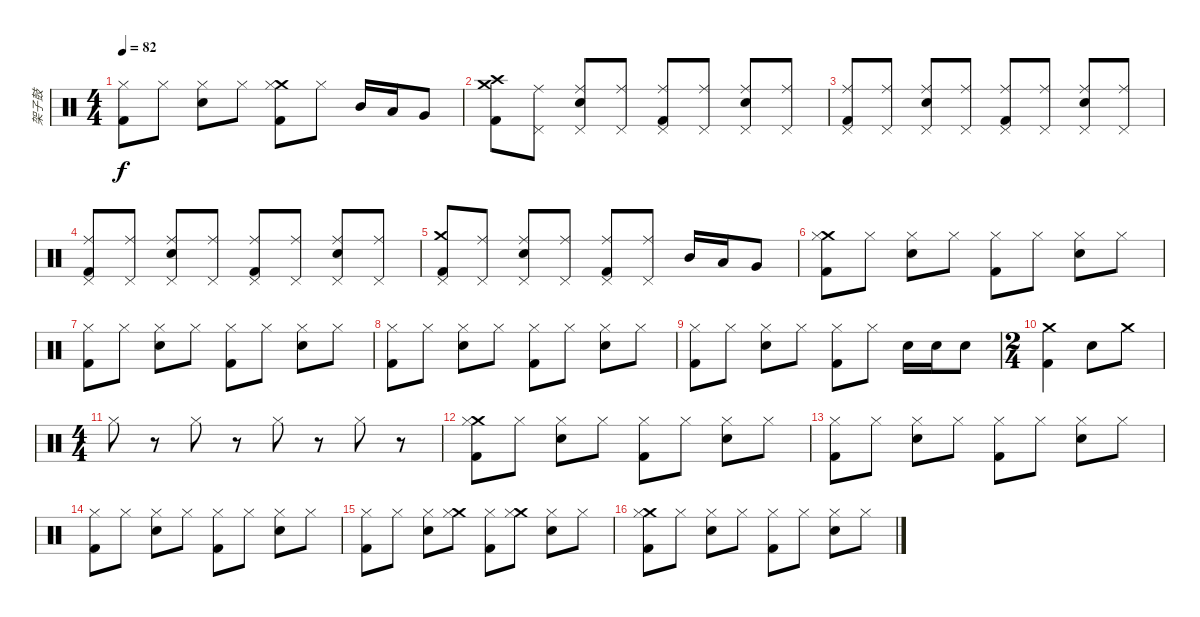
\track ("架子鼓" "架子鼓") {instrument percussion}
\staff {score}
\articulation defaults
\ts (4 4)
\tempo 82
\clef neutral
\ks c
("Hi-Hat (closed)" "Kick (hit) 2").8{dy f} "Hi-Hat (closed)".8 ("Hi-Hat (closed)" "Snare (hit) 2").8 "Hi-Hat (closed)".8 ("Crash medium (hit)" "Hi-Hat (closed)" "Kick (hit) 2").8 "Hi-Hat (closed)".8 "Mid Tom (hit)".16 "Low Tom (hit)".16 "Very Low Tom (hit)".8 |
("Crash medium (hit)" "Crash high (hit)" "Kick (hit) 2").8 ("Ride (middle)" "Pedal Hi-Hat (hit)").8 ("Ride (middle)" "Pedal Hi-Hat (hit)" "Snare (hit) 2").8 ("Ride (middle)" "Pedal Hi-Hat (hit)").8 ("Ride (middle)" "Pedal Hi-Hat (hit)" "Kick (hit) 2").8 ("Ride (middle)" "Pedal Hi-Hat (hit)").8 ("Ride (middle)" "Pedal Hi-Hat (hit)" "Snare (hit) 2").8 ("Ride (middle)" "Pedal Hi-Hat (hit)").8 |
("Ride (middle)" "Pedal Hi-Hat (hit)" "Kick (hit) 2").8 ("Ride (middle)" "Pedal Hi-Hat (hit)").8 ("Ride (middle)" "Pedal Hi-Hat (hit)" "Snare (hit) 2").8 ("Ride (middle)" "Pedal Hi-Hat (hit)").8 ("Ride (middle)" "Pedal Hi-Hat (hit)" "Kick (hit) 2").8 ("Ride (middle)" "Pedal Hi-Hat (hit)").8 ("Ride (middle)" "Pedal Hi-Hat (hit)" "Snare (hit) 2").8 ("Ride (middle)" "Pedal Hi-Hat (hit)").8 |
("Ride (middle)" "Pedal Hi-Hat (hit)" "Kick (hit) 2").8 ("Ride (middle)" "Pedal Hi-Hat (hit)").8 ("Ride (middle)" "Pedal Hi-Hat (hit)" "Snare (hit) 2").8 ("Ride (middle)" "Pedal Hi-Hat (hit)").8 ("Ride (middle)" "Pedal Hi-Hat (hit)" "Kick (hit) 2").8 ("Ride (middle)" "Pedal Hi-Hat (hit)").8 ("Ride (middle)" "Pedal Hi-Hat (hit)" "Snare (hit) 2").8 ("Ride (middle)" "Pedal Hi-Hat (hit)").8 |
("Crash medium (hit)" "Pedal Hi-Hat (hit)" "Kick (hit) 2").8 ("Ride (middle)" "Pedal Hi-Hat (hit)").8 ("Ride (middle)" "Pedal Hi-Hat (hit)" "Snare (hit) 2").8 ("Ride (middle)" "Pedal Hi-Hat (hit)").8 ("Ride (middle)" "Pedal Hi-Hat (hit)" "Kick (hit) 2").8 ("Ride (middle)" "Pedal Hi-Hat (hit)").8 "Mid Tom (hit)".16 "Low Tom (hit)".16 "Very Low Tom (hit)".8 |
("Crash medium (hit)" "Hi-Hat (closed)" "Kick (hit) 2").8 "Hi-Hat (closed)".8 ("Hi-Hat (closed)" "Snare (hit) 2").8 "Hi-Hat (closed)".8 ("Hi-Hat (closed)" "Kick (hit) 2").8 "Hi-Hat (closed)".8 ("Hi-Hat (closed)" "Snare (hit) 2").8 "Hi-Hat (closed)".8 |
("Hi-Hat (closed)" "Kick (hit) 2").8 "Hi-Hat (closed)".8 ("Hi-Hat (closed)" "Snare (hit) 2").8 "Hi-Hat (closed)".8 ("Hi-Hat (closed)" "Kick (hit) 2").8 "Hi-Hat (closed)".8 ("Hi-Hat (closed)" "Snare (hit) 2").8 "Hi-Hat (closed)".8 |
("Hi-Hat (closed)" "Kick (hit) 2").8 "Hi-Hat (closed)".8 ("Hi-Hat (closed)" "Snare (hit) 2").8 "Hi-Hat (closed)".8 ("Hi-Hat (closed)" "Kick (hit) 2").8 "Hi-Hat (closed)".8 ("Hi-Hat (closed)" "Snare (hit) 2").8 "Hi-Hat (closed)".8 |
("Hi-Hat (closed)" "Kick (hit) 2").8 "Hi-Hat (closed)".8 ("Hi-Hat (closed)" "Snare (hit) 2").8 "Hi-Hat (closed)".8 ("Hi-Hat (closed)" "Kick (hit) 2").8 "Hi-Hat (closed)".8 "Snare (hit) 2".16 "Snare (hit) 2".16 "Snare (hit) 2".8 |
\ts (2 4)
("Crash medium (hit)" "Kick (hit) 2").4 "Snare (hit) 2".8 "Crash medium (hit)".8 |
\ts (4 4)
"Hi-Hat (closed)".8 r.8 "Hi-Hat (closed)".8 r.8 "Hi-Hat (closed)".8 r.8 "Hi-Hat (closed)".8 r.8 |
("Crash medium (hit)" "Hi-Hat (closed)" "Kick (hit) 2").8 "Hi-Hat (closed)".8 ("Hi-Hat (closed)" "Snare (hit) 2").8 "Hi-Hat (closed)".8 ("Hi-Hat (closed)" "Kick (hit) 2").8 "Hi-Hat (closed)".8 ("Hi-Hat (closed)" "Snare (hit) 2").8 "Hi-Hat (closed)".8 |
("Hi-Hat (closed)" "Kick (hit) 2").8 "Hi-Hat (closed)".8 ("Hi-Hat (closed)" "Snare (hit) 2").8 "Hi-Hat (closed)".8 ("Hi-Hat (closed)" "Kick (hit) 2").8 "Hi-Hat (closed)".8 ("Hi-Hat (closed)" "Snare (hit) 2").8 "Hi-Hat (closed)".8 |
("Hi-Hat (closed)" "Kick (hit) 2").8 "Hi-Hat (closed)".8 ("Hi-Hat (closed)" "Snare (hit) 2").8 "Hi-Hat (closed)".8 ("Hi-Hat (closed)" "Kick (hit) 2").8 "Hi-Hat (closed)".8 ("Hi-Hat (closed)" "Snare (hit) 2").8 "Hi-Hat (closed)".8 |
("Hi-Hat (closed)" "Kick (hit) 2").8 "Hi-Hat (closed)".8 ("Hi-Hat (closed)" "Snare (hit) 2").8 ("Crash medium (hit)" "Hi-Hat (closed)").8 ("Hi-Hat (closed)" "Kick (hit) 2").8 ("Crash medium (hit)" "Hi-Hat (closed)").8 ("Hi-Hat (closed)" "Snare (hit) 2").8 "Hi-Hat (closed)".8 |
("Crash medium (hit)" "Hi-Hat (closed)" "Kick (hit) 2").8 "Hi-Hat (closed)".8 ("Hi-Hat (closed)" "Snare (hit) 2").8 "Hi-Hat (closed)".8 ("Hi-Hat (closed)" "Kick (hit) 2").8 "Hi-Hat (closed)".8 ("Hi-Hat (closed)" "Snare (hit) 2").8 "Hi-Hat (closed)".8
